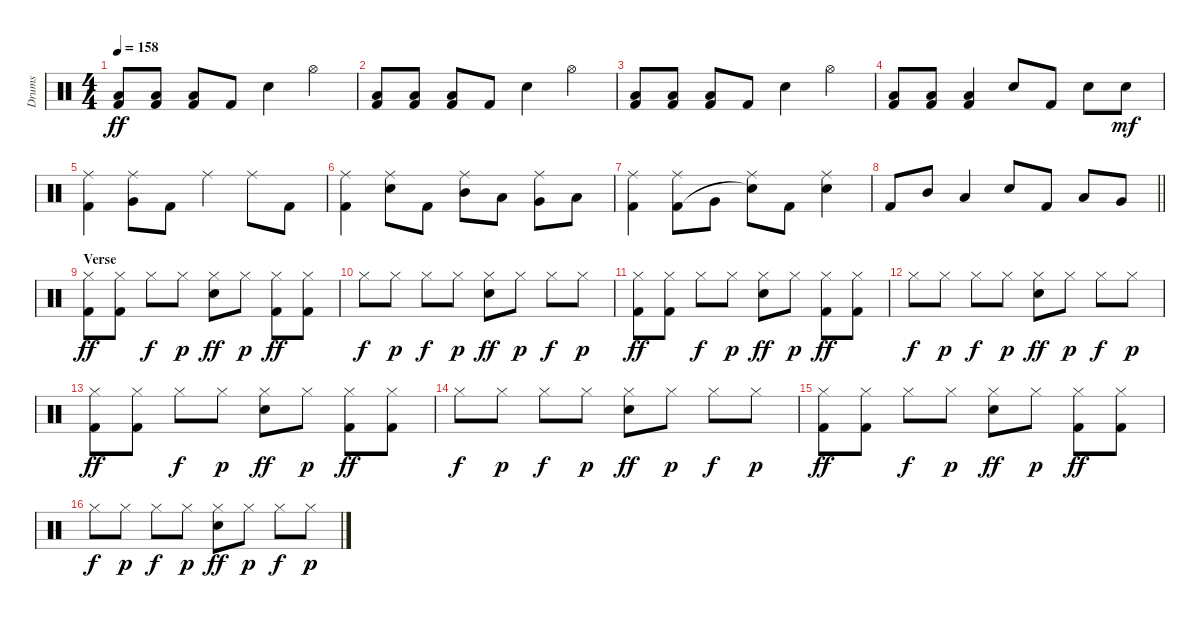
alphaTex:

\track ("Drums" "Drums") {instrument percussion}
\staff {score}
\articulation defaults
\ts (4 4)
\tempo 158
\clef neutral
\ks c
("Low Floor Tom (hit)" "Kick (hit) 2").8{dy ff} ("Low Floor Tom (hit)" "Kick (hit) 2").8 ("Low Floor Tom (hit)" "Kick (hit) 2").8 "Kick (hit) 2".8 "Electric Snare (hit)".4 "Hi-Hat (open)".4 |
("Low Floor Tom (hit)" "Kick (hit) 2").8 ("Low Floor Tom (hit)" "Kick (hit) 2").8 ("Low Floor Tom (hit)" "Kick (hit) 2").8 "Kick (hit) 2".8 "Electric Snare (hit)".4 "Hi-Hat (open)".4 |
("Low Floor Tom (hit)" "Kick (hit) 2").8 ("Low Floor Tom (hit)" "Kick (hit) 2").8 ("Low Floor Tom (hit)" "Kick (hit) 2").8 "Kick (hit) 2".8 "Electric Snare (hit)".4 "Hi-Hat (open)".4 |
("Low Floor Tom (hit)" "Kick (hit) 2").8 ("Low Floor Tom (hit)" "Kick (hit) 2").8 ("Low Floor Tom (hit)" "Kick (hit) 2").4 "Electric Snare (hit)".8 "Kick (hit) 2".8 "Electric Snare (hit)".8 "Electric Snare (hit)".8{dy mf} |
("Ride (middle)" "Kick (hit) 2").4 ("Ride (middle)" "Very Low Tom (hit)").8 "Kick (hit) 2".8 "Ride (middle)".4 "Ride (middle)".8 "Kick (hit) 2".8 |
("Ride (middle)" "Kick (hit) 2").4 ("Ride (middle)" "Electric Snare (hit)").8 "Kick (hit) 2".8 ("Ride (middle)" "Mid Tom (hit)").8 "Low Tom (hit)".8 ("Ride (middle)" "Very Low Tom (hit)").8 "Low Floor Tom (hit)".8 |
("Ride (middle)" "Kick (hit) 2").4 ("Ride (middle)" "Kick (hit) 2").8 "Very Low Tom (hit)".8 ("Ride (middle)" "Snare (hit)"{t}).8 "Kick (hit) 2".8 ("Ride (middle)" "Electric Snare (hit)").4 |
\barLineRight lightlight "Kick (hit) 2".8 "Mid Tom (hit)".8 "Low Tom (hit)".4 "Electric Snare (hit)".8 "Kick (hit) 2".8 "Low Tom (hit)".8 "Very Low Tom (hit)".8
|
\section ("" "Verse")
("Hi-Hat (closed)" "Kick (hit) 2").8{dy ff} ("Hi-Hat (closed)" "Kick (hit) 2").8 "Hi-Hat (closed)".8{dy f} "Hi-Hat (closed)".8{dy p} ("Hi-Hat (closed)" "Electric Snare (hit)").8{dy ff} "Hi-Hat (closed)".8{dy p} ("Hi-Hat (closed)" "Kick (hit) 2").8{dy ff} ("Hi-Hat (closed)" "Kick (hit) 2").8 |
"Hi-Hat (closed)".8{dy f} "Hi-Hat (closed)".8{dy p} "Hi-Hat (closed)".8{dy f} "Hi-Hat (closed)".8{dy p} ("Hi-Hat (closed)" "Electric Snare (hit)").8{dy ff} "Hi-Hat (closed)".8{dy p} "Hi-Hat (closed)".8{dy f} "Hi-Hat (closed)".8{dy p} |
("Hi-Hat (closed)" "Kick (hit) 2").8{dy ff} ("Hi-Hat (closed)" "Kick (hit) 2").8 "Hi-Hat (closed)".8{dy f} "Hi-Hat (closed)".8{dy p} ("Hi-Hat (closed)" "Electric Snare (hit)").8{dy ff} "Hi-Hat (closed)".8{dy p} ("Hi-Hat (closed)" "Kick (hit) 2").8{dy ff} ("Hi-Hat (closed)" "Kick (hit) 2").8 |
"Hi-Hat (closed)".8{dy f} "Hi-Hat (closed)".8{dy p} "Hi-Hat (closed)".8{dy f} "Hi-Hat (closed)".8{dy p} ("Hi-Hat (closed)" "Electric Snare (hit)").8{dy ff} "Hi-Hat (closed)".8{dy p} "Hi-Hat (closed)".8{dy f} "Hi-Hat (closed)".8{dy p} |
("Hi-Hat (closed)" "Kick (hit) 2").8{dy ff} ("Hi-Hat (closed)" "Kick (hit) 2").8 "Hi-Hat (closed)".8{dy f} "Hi-Hat (closed)".8{dy p} ("Hi-Hat (closed)" "Electric Snare (hit)").8{dy ff} "Hi-Hat (closed)".8{dy p} ("Hi-Hat (closed)" "Kick (hit) 2").8{dy ff} ("Hi-Hat (closed)" "Kick (hit) 2").8 |
"Hi-Hat (closed)".8{dy f} "Hi-Hat (closed)".8{dy p} "Hi-Hat (closed)".8{dy f} "Hi-Hat (closed)".8{dy p} ("Hi-Hat (closed)" "Electric Snare (hit)").8{dy ff} "Hi-Hat (closed)".8{dy p} "Hi-Hat (closed)".8{dy f} "Hi-Hat (closed)".8{dy p} |
("Hi-Hat (closed)" "Kick (hit) 2").8{dy ff} ("Hi-Hat (closed)" "Kick (hit) 2").8 "Hi-Hat (closed)".8{dy f} "Hi-Hat (closed)".8{dy p} ("Hi-Hat (closed)" "Electric Snare (hit)").8{dy ff} "Hi-Hat (closed)".8{dy p} ("Hi-Hat (closed)" "Kick (hit) 2").8{dy ff} ("Hi-Hat (closed)" "Kick (hit) 2").8 |
"Hi-Hat (closed)".8{dy f} "Hi-Hat (closed)".8{dy p} "Hi-Hat (closed)".8{dy f} "Hi-Hat (closed)".8{dy p} ("Hi-Hat (closed)" "Electric Snare (hit)").8{dy ff} "Hi-Hat (closed)".8{dy p} "Hi-Hat (closed)".8{dy f} "Hi-Hat (closed)".8{dy p}
